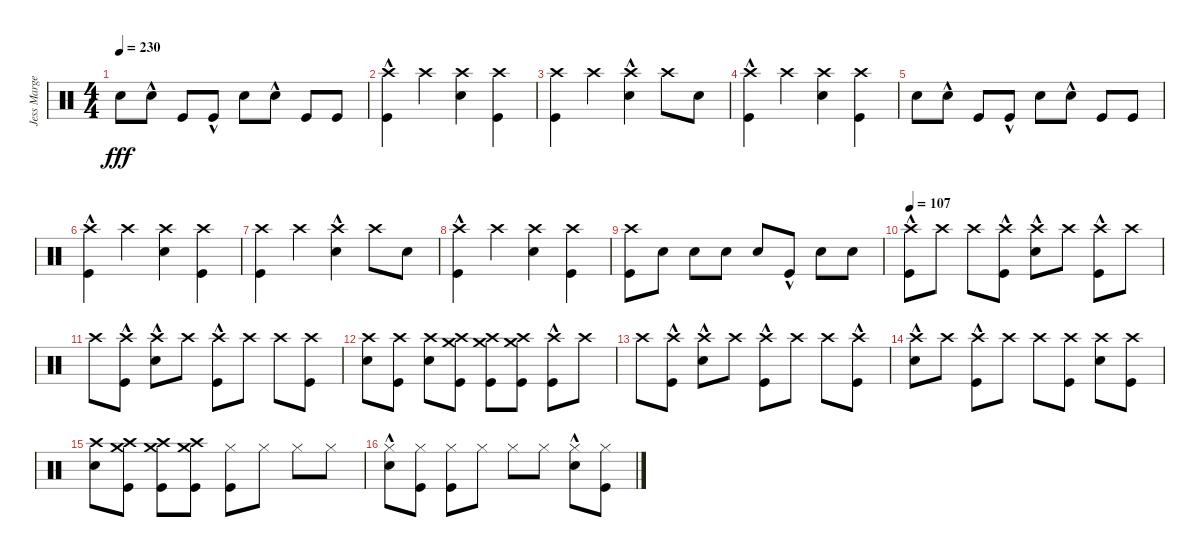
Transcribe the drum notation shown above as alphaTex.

\track ("Jess Margera (drums)" "Jess Marge") {instrument percussion}
\staff {score}
\articulation defaults
\ts (4 4)
\tempo 230
\clef neutral
\ks c "Snare (hit) 2".8{dy fff} "Snare (hit) 2"{hac}.8 "Kick (hit)".8 "Kick (hit)"{hac}.8 "Snare (hit) 2".8 "Snare (hit) 2"{hac}.8 "Kick (hit)".8 "Kick (hit)".8
|
("Kick (hit)"{hac} "Crash high (hit)").4 "Crash high (hit)".4 ("Snare (hit) 2" "Crash high (hit)").4 ("Kick (hit)" "Crash high (hit)").4 |
("Kick (hit)" "Crash high (hit)").4 "Crash high (hit)".4 ("Snare (hit) 2"{hac} "Crash high (hit)").4 "Crash high (hit)".8 "Snare (hit) 2".8 |
("Kick (hit)"{hac} "Crash high (hit)").4 "Crash high (hit)".4 ("Snare (hit) 2" "Crash high (hit)").4 ("Kick (hit)" "Crash high (hit)").4 |
"Snare (hit) 2".8 "Snare (hit) 2"{hac}.8 "Kick (hit)".8 "Kick (hit)"{hac}.8 "Snare (hit) 2".8 "Snare (hit) 2"{hac}.8 "Kick (hit)".8 "Kick (hit)".8 |
("Kick (hit)"{hac} "Crash high (hit)").4 "Crash high (hit)".4 ("Snare (hit) 2" "Crash high (hit)").4 ("Kick (hit)" "Crash high (hit)").4 |
("Kick (hit)" "Crash high (hit)").4 "Crash high (hit)".4 ("Snare (hit) 2"{hac} "Crash high (hit)").4 "Crash high (hit)".8 "Snare (hit) 2".8 |
("Kick (hit)"{hac} "Crash high (hit)").4 "Crash high (hit)".4 ("Snare (hit) 2" "Crash high (hit)").4 ("Kick (hit)" "Crash high (hit)").4 |
("Kick (hit)" "Crash high (hit)").8 "Snare (hit) 2".8 "Snare (hit) 2".8 "Snare (hit) 2".8 "Snare (hit) 2".8 "Kick (hit)"{hac}.8 "Snare (hit) 2".8 "Snare (hit) 2".8 |
\tempo 107
("Kick (hit)"{hac} "Crash high (hit)").8 "Crash high (hit)".8 "Crash high (hit)".8 ("Kick (hit)"{hac} "Crash high (hit)").8 ("Snare (hit) 2"{hac} "Crash high (hit)").8 "Crash high (hit)".8 ("Kick (hit)"{hac} "Crash high (hit)").8 "Crash high (hit)".8 |
"Crash high (hit)".8 ("Kick (hit)"{hac} "Crash high (hit)").8 ("Snare (hit) 2"{hac} "Crash high (hit)").8 "Crash high (hit)".8 ("Kick (hit)"{hac} "Crash high (hit)").8 "Crash high (hit)".8 "Crash high (hit)".8 ("Kick (hit)" "Crash high (hit)").8 |
("Snare (hit) 2" "Crash high (hit)").8 ("Kick (hit)" "Crash high (hit)").8 ("Snare (hit) 2" "Crash high (hit)").8 ("Kick (hit)" "Crash medium (hit)" "Crash high (hit)").8 ("Kick (hit)" "Crash medium (hit)" "Crash high (hit)").8 ("Kick (hit)" "Crash medium (hit)" "Crash high (hit)").8 ("Kick (hit)"{hac} "Crash high (hit)").8 "Crash high (hit)".8 |
"Crash high (hit)".8 ("Kick (hit)"{hac} "Crash high (hit)").8 ("Snare (hit) 2"{hac} "Crash high (hit)").8 "Crash high (hit)".8 ("Kick (hit)"{hac} "Crash high (hit)").8 "Crash high (hit)".8 "Crash high (hit)".8 ("Kick (hit)"{hac} "Crash high (hit)").8 |
("Snare (hit) 2"{hac} "Crash high (hit)").8 "Crash high (hit)".8 ("Kick (hit)"{hac} "Crash high (hit)").8 "Crash high (hit)".8 "Crash high (hit)".8 ("Kick (hit)" "Crash high (hit)").8 ("Snare (hit) 2" "Crash high (hit)").8 ("Kick (hit)" "Crash high (hit)").8 |
("Snare (hit) 2" "Crash high (hit)").8 ("Kick (hit)" "Crash medium (hit)" "Crash high (hit)").8 ("Kick (hit)" "Crash medium (hit)" "Crash high (hit)").8 ("Kick (hit)" "Crash medium (hit)" "Crash high (hit)").8 ("Kick (hit)" "Hi-Hat (closed)").8 "Hi-Hat (closed)".8 "Hi-Hat (closed)".8 "Hi-Hat (closed)".8 |
("Snare (hit) 2"{hac} "Hi-Hat (closed)").8 ("Kick (hit)" "Hi-Hat (closed)").8 ("Kick (hit)" "Hi-Hat (closed)").8 "Hi-Hat (closed)".8 "Hi-Hat (closed)".8 "Hi-Hat (closed)".8 ("Snare (hit) 2"{hac} "Hi-Hat (closed)").8 ("Kick (hit)" "Hi-Hat (closed)").8
